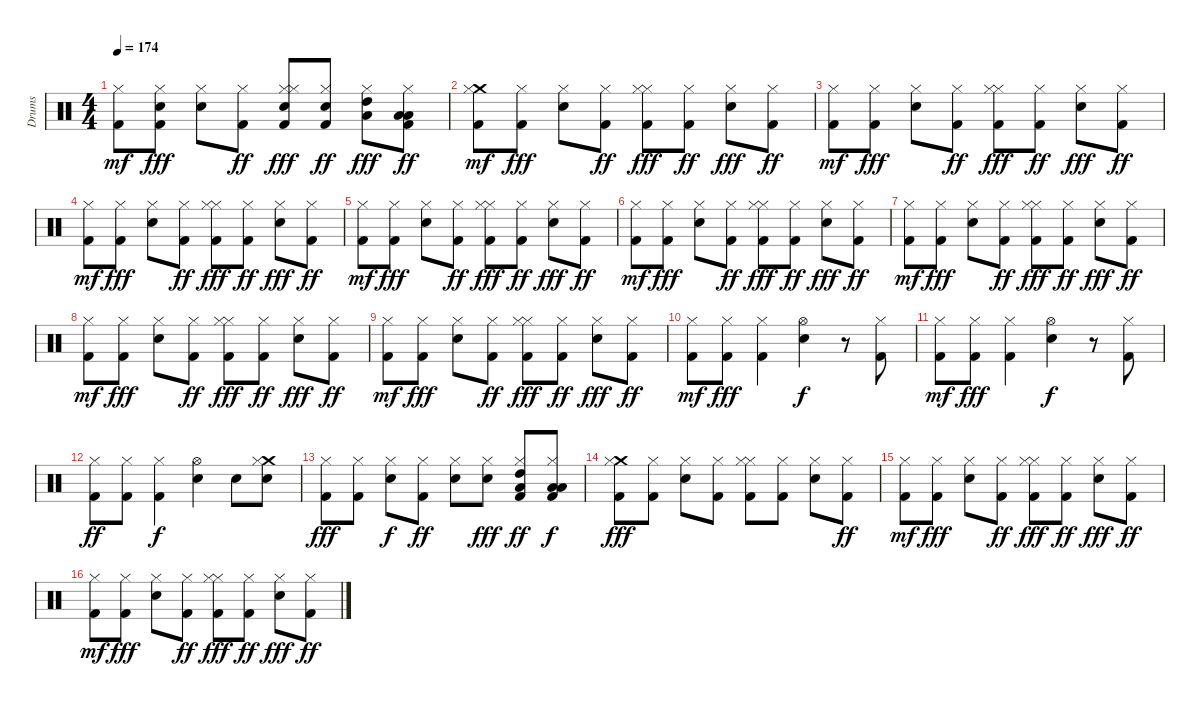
\track ("Drums" "Drums") {instrument percussion}
\staff {score}
\articulation defaults
\ts (4 4)
\tempo 174
\clef neutral
\ks c
("Kick (hit) 2" "Hi-Hat (closed)").8{dy mf} ("Hi-Hat (closed)" "Snare (hit) 2" "Kick (hit) 2").8{dy fff} ("Hi-Hat (closed)" "Snare (hit) 2").8 ("Hi-Hat (closed)" "Kick (hit) 2").8{dy ff} ("Hi-Hat (closed)" "Hi-Hat (closed)" "Kick (hit) 2" "Snare (hit) 2").8{dy fff} ("Hi-Hat (closed)" "Snare (hit) 2" "Kick (hit) 2").8{dy ff} ("Hi-Hat (closed)" "Low Tom (hit)" "High Tom (hit)").8{dy fff} ("Hi-Hat (closed)" "Low Floor Tom (hit)" "Low Tom (hit)" "Kick (hit) 2").8{dy ff} |
("Crash medium (hit)" "Hi-Hat (closed)" "Kick (hit) 2").8{dy mf} ("Hi-Hat (closed)" "Kick (hit) 2").8{dy fff} ("Hi-Hat (closed)" "Snare (hit) 2").8 ("Hi-Hat (closed)" "Kick (hit) 2").8{dy ff} ("Hi-Hat (closed)" "Hi-Hat (closed)" "Kick (hit) 2").8{dy fff} ("Hi-Hat (closed)" "Kick (hit) 2").8{dy ff} ("Hi-Hat (closed)" "Snare (hit) 2").8{dy fff} ("Hi-Hat (closed)" "Kick (hit) 2").8{dy ff} |
("Kick (hit) 2" "Hi-Hat (closed)").8{dy mf} ("Hi-Hat (closed)" "Kick (hit) 2").8{dy fff} ("Hi-Hat (closed)" "Snare (hit) 2").8 ("Hi-Hat (closed)" "Kick (hit) 2").8{dy ff} ("Hi-Hat (closed)" "Hi-Hat (closed)" "Kick (hit) 2").8{dy fff} ("Hi-Hat (closed)" "Kick (hit) 2").8{dy ff} ("Hi-Hat (closed)" "Snare (hit) 2").8{dy fff} ("Hi-Hat (closed)" "Kick (hit) 2").8{dy ff} |
("Kick (hit) 2" "Hi-Hat (closed)").8{dy mf} ("Hi-Hat (closed)" "Kick (hit) 2").8{dy fff} ("Hi-Hat (closed)" "Snare (hit) 2").8 ("Hi-Hat (closed)" "Kick (hit) 2").8{dy ff} ("Hi-Hat (closed)" "Hi-Hat (closed)" "Kick (hit) 2").8{dy fff} ("Hi-Hat (closed)" "Kick (hit) 2").8{dy ff} ("Hi-Hat (closed)" "Snare (hit) 2").8{dy fff} ("Hi-Hat (closed)" "Kick (hit) 2").8{dy ff} |
("Kick (hit) 2" "Hi-Hat (closed)").8{dy mf} ("Hi-Hat (closed)" "Kick (hit) 2").8{dy fff} ("Hi-Hat (closed)" "Snare (hit) 2").8 ("Hi-Hat (closed)" "Kick (hit) 2").8{dy ff} ("Hi-Hat (closed)" "Hi-Hat (closed)" "Kick (hit) 2").8{dy fff} ("Hi-Hat (closed)" "Kick (hit) 2").8{dy ff} ("Hi-Hat (closed)" "Snare (hit) 2").8{dy fff} ("Hi-Hat (closed)" "Kick (hit) 2").8{dy ff} |
("Kick (hit) 2" "Hi-Hat (closed)").8{dy mf} ("Hi-Hat (closed)" "Kick (hit) 2").8{dy fff} ("Hi-Hat (closed)" "Snare (hit) 2").8 ("Hi-Hat (closed)" "Kick (hit) 2").8{dy ff} ("Hi-Hat (closed)" "Hi-Hat (closed)" "Kick (hit) 2").8{dy fff} ("Hi-Hat (closed)" "Kick (hit) 2").8{dy ff} ("Hi-Hat (closed)" "Snare (hit) 2").8{dy fff} ("Hi-Hat (closed)" "Kick (hit) 2").8{dy ff} |
("Kick (hit) 2" "Hi-Hat (closed)").8{dy mf} ("Hi-Hat (closed)" "Kick (hit) 2").8{dy fff} ("Hi-Hat (closed)" "Snare (hit) 2").8 ("Hi-Hat (closed)" "Kick (hit) 2").8{dy ff} ("Hi-Hat (closed)" "Hi-Hat (closed)" "Kick (hit) 2").8{dy fff} ("Hi-Hat (closed)" "Kick (hit) 2").8{dy ff} ("Hi-Hat (closed)" "Snare (hit) 2").8{dy fff} ("Hi-Hat (closed)" "Kick (hit) 2").8{dy ff} |
("Kick (hit) 2" "Hi-Hat (closed)").8{dy mf} ("Hi-Hat (closed)" "Kick (hit) 2").8{dy fff} ("Hi-Hat (closed)" "Snare (hit) 2").8 ("Hi-Hat (closed)" "Kick (hit) 2").8{dy ff} ("Hi-Hat (closed)" "Hi-Hat (closed)" "Kick (hit) 2").8{dy fff} ("Hi-Hat (closed)" "Kick (hit) 2").8{dy ff} ("Hi-Hat (closed)" "Snare (hit) 2").8{dy fff} ("Hi-Hat (closed)" "Kick (hit) 2").8{dy ff} |
("Kick (hit) 2" "Hi-Hat (closed)").8{dy mf} ("Hi-Hat (closed)" "Kick (hit) 2").8{dy fff} ("Hi-Hat (closed)" "Snare (hit) 2").8 ("Hi-Hat (closed)" "Kick (hit) 2").8{dy ff} ("Hi-Hat (closed)" "Hi-Hat (closed)" "Kick (hit) 2").8{dy fff} ("Hi-Hat (closed)" "Kick (hit) 2").8{dy ff} ("Hi-Hat (closed)" "Snare (hit) 2").8{dy fff} ("Hi-Hat (closed)" "Kick (hit) 2").8{dy ff} |
("Hi-Hat (closed)" "Kick (hit) 2").8{dy mf} ("Hi-Hat (closed)" "Kick (hit) 2").8{dy fff} ("Hi-Hat (closed)" "Kick (hit) 2").4 ("Hi-Hat (open)" "Snare (hit) 2").4{dy f} r.8 ("Hi-Hat (closed)" "Kick (hit) 2").8 |
("Hi-Hat (closed)" "Kick (hit) 2").8{dy mf} ("Hi-Hat (closed)" "Kick (hit) 2").8{dy fff} ("Hi-Hat (closed)" "Kick (hit) 2").4 ("Hi-Hat (open)" "Snare (hit) 2").4{dy f} r.8 ("Hi-Hat (closed)" "Kick (hit) 2").8 |
("Hi-Hat (closed)" "Kick (hit) 2").8{dy ff} ("Hi-Hat (closed)" "Kick (hit) 2").8 ("Hi-Hat (closed)" "Kick (hit) 2").4{dy f} ("Hi-Hat (open)" "Snare (hit) 2").4 "Electric Snare (hit)".8 ("Crash medium (hit)" "Hi-Hat (closed)" "Snare (hit) 2").8 |
("Hi-Hat (closed)" "Kick (hit) 2").8{dy fff} ("Hi-Hat (closed)" "Kick (hit) 2").8 ("Hi-Hat (closed)" "Snare (hit) 2").8{dy f} ("Hi-Hat (closed)" "Kick (hit) 2").8{dy ff} ("Hi-Hat (closed)" "Snare (hit) 2").8 ("Hi-Hat (closed)" "Snare (hit) 2").8{dy fff} ("Hi-Hat (closed)" "Low Tom (hit)" "High Tom (hit)" "Kick (hit) 2").8{dy ff} ("Hi-Hat (closed)" "Low Floor Tom (hit)" "Low Tom (hit)" "Kick (hit) 2").8{dy f} |
("Crash medium (hit)" "Hi-Hat (closed)" "Kick (hit) 2").8{dy fff} ("Hi-Hat (closed)" "Kick (hit) 2").8 ("Hi-Hat (closed)" "Snare (hit) 2").8 ("Hi-Hat (closed)" "Kick (hit) 2").8 ("Hi-Hat (closed)" "Hi-Hat (closed)" "Kick (hit) 2").8 ("Hi-Hat (closed)" "Kick (hit) 2").8 ("Hi-Hat (closed)" "Snare (hit) 2").8 ("Hi-Hat (closed)" "Kick (hit) 2").8{dy ff} |
("Kick (hit) 2" "Hi-Hat (closed)").8{dy mf} ("Hi-Hat (closed)" "Kick (hit) 2").8{dy fff} ("Hi-Hat (closed)" "Snare (hit) 2").8 ("Hi-Hat (closed)" "Kick (hit) 2").8{dy ff} ("Hi-Hat (closed)" "Hi-Hat (closed)" "Kick (hit) 2").8{dy fff} ("Hi-Hat (closed)" "Kick (hit) 2").8{dy ff} ("Hi-Hat (closed)" "Snare (hit) 2").8{dy fff} ("Hi-Hat (closed)" "Kick (hit) 2").8{dy ff} |
("Kick (hit) 2" "Hi-Hat (closed)").8{dy mf} ("Hi-Hat (closed)" "Kick (hit) 2").8{dy fff} ("Hi-Hat (closed)" "Snare (hit) 2").8 ("Hi-Hat (closed)" "Kick (hit) 2").8{dy ff} ("Hi-Hat (closed)" "Hi-Hat (closed)" "Kick (hit) 2").8{dy fff} ("Hi-Hat (closed)" "Kick (hit) 2").8{dy ff} ("Hi-Hat (closed)" "Snare (hit) 2").8{dy fff} ("Hi-Hat (closed)" "Kick (hit) 2").8{dy ff}
